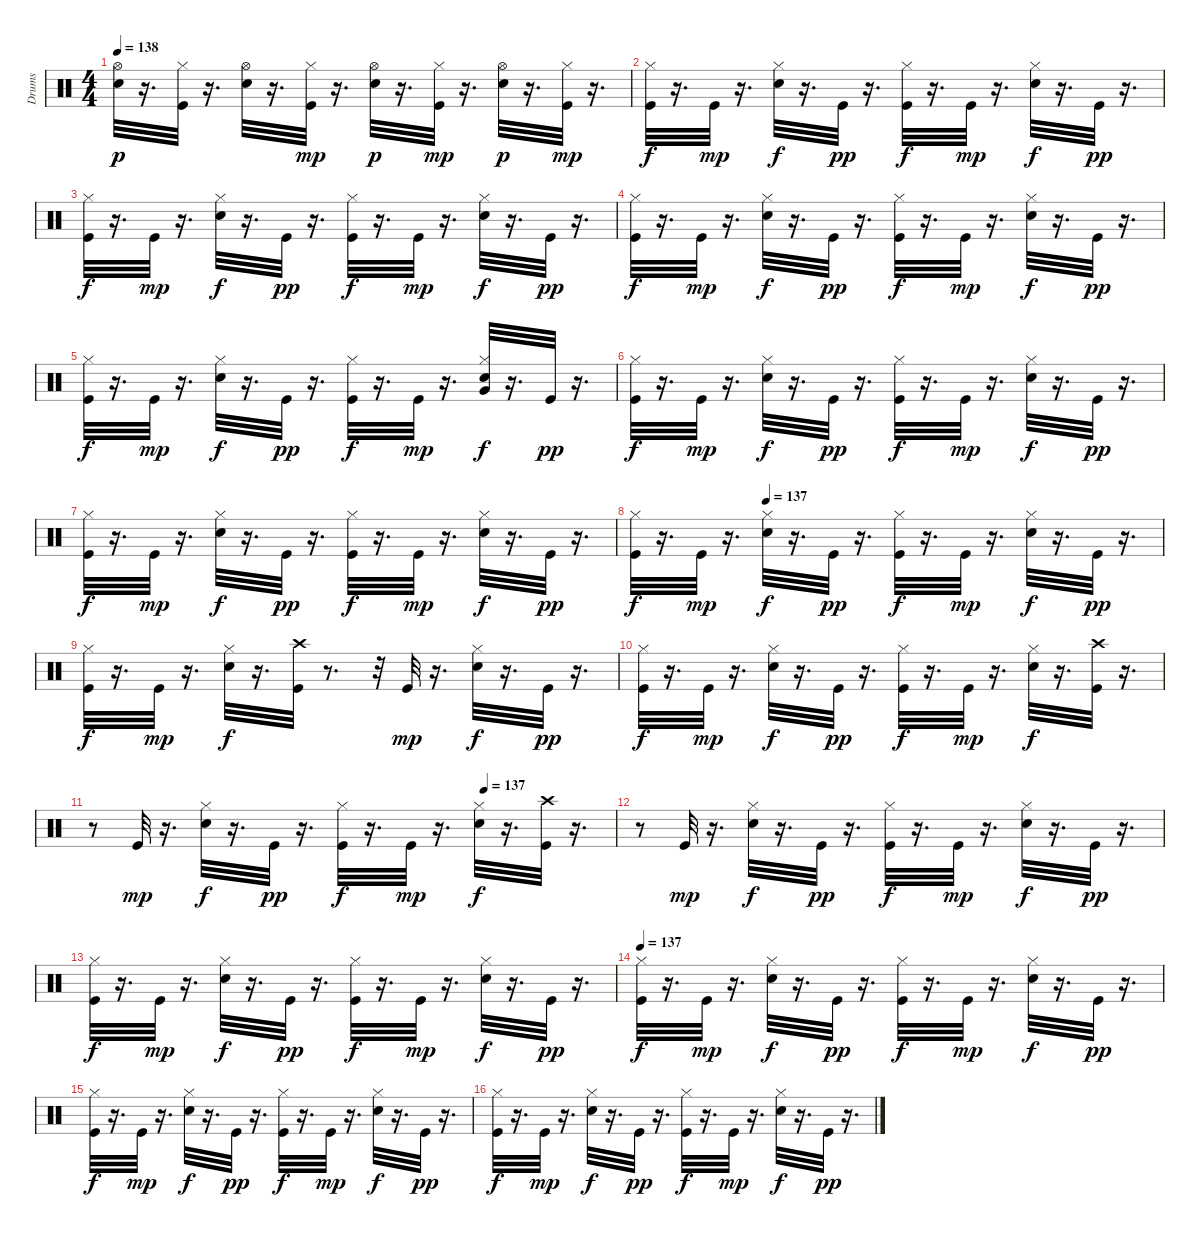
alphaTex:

\track ("Drums" "Drums") {instrument percussion}
\staff {score}
\articulation defaults
\ts (4 4)
\tempo 138
\clef neutral
\ks c
("Hi-Hat (open)" "Snare (hit) 2").32{dy p} r.16{d} ("Hi-Hat (closed)" "Kick (hit)").32 r.16{d} ("Hi-Hat (open)" "Snare (hit) 2").32 r.16{d} ("Hi-Hat (closed)" "Kick (hit)").32{dy mp} r.16{d} ("Hi-Hat (open)" "Snare (hit) 2").32{dy p} r.16{d} ("Hi-Hat (closed)" "Kick (hit)").32{dy mp} r.16{d} ("Hi-Hat (open)" "Snare (hit) 2").32{dy p} r.16{d} ("Hi-Hat (closed)" "Kick (hit)").32{dy mp} r.16{d} |
("Hi-Hat (closed)" "Kick (hit)").32{dy f} r.16{d} "Kick (hit)".32{dy mp} r.16{d} ("Hi-Hat (closed)" "Snare (hit) 2").32{dy f} r.16{d} "Kick (hit)".32{dy pp} r.16{d} ("Hi-Hat (closed)" "Kick (hit)").32{dy f} r.16{d} "Kick (hit)".32{dy mp} r.16{d} ("Hi-Hat (closed)" "Snare (hit) 2").32{dy f} r.16{d} "Kick (hit)".32{dy pp} r.16{d} |
("Hi-Hat (closed)" "Kick (hit)").32{dy f} r.16{d} "Kick (hit)".32{dy mp} r.16{d} ("Hi-Hat (closed)" "Snare (hit) 2").32{dy f} r.16{d} "Kick (hit)".32{dy pp} r.16{d} ("Hi-Hat (closed)" "Kick (hit)").32{dy f} r.16{d} "Kick (hit)".32{dy mp} r.16{d} ("Hi-Hat (closed)" "Snare (hit) 2").32{dy f} r.16{d} "Kick (hit)".32{dy pp} r.16{d} |
("Hi-Hat (closed)" "Kick (hit)").32{dy f} r.16{d} "Kick (hit)".32{dy mp} r.16{d} ("Hi-Hat (closed)" "Snare (hit) 2").32{dy f} r.16{d} "Kick (hit)".32{dy pp} r.16{d} ("Hi-Hat (closed)" "Kick (hit)").32{dy f} r.16{d} "Kick (hit)".32{dy mp} r.16{d} ("Hi-Hat (closed)" "Snare (hit) 2").32{dy f} r.16{d} "Kick (hit)".32{dy pp} r.16{d} |
("Hi-Hat (closed)" "Kick (hit)").32{dy f} r.16{d} "Kick (hit)".32{dy mp} r.16{d} ("Hi-Hat (closed)" "Snare (hit) 2").32{dy f} r.16{d} "Kick (hit)".32{dy pp} r.16{d} ("Hi-Hat (closed)" "Kick (hit)").32{dy f} r.16{d} "Kick (hit)".32{dy mp} r.16{d} ("Very Low Tom (hit)" "Hi-Hat (closed)" "Snare (hit) 2").32{dy f} r.16{d} "Kick (hit)".32{dy pp} r.16{d} |
("Hi-Hat (closed)" "Kick (hit)").32{dy f} r.16{d} "Kick (hit)".32{dy mp} r.16{d} ("Hi-Hat (closed)" "Snare (hit) 2").32{dy f} r.16{d} "Kick (hit)".32{dy pp} r.16{d} ("Hi-Hat (closed)" "Kick (hit)").32{dy f} r.16{d} "Kick (hit)".32{dy mp} r.16{d} ("Hi-Hat (closed)" "Snare (hit) 2").32{dy f} r.16{d} "Kick (hit)".32{dy pp} r.16{d} |
("Hi-Hat (closed)" "Kick (hit)").32{dy f} r.16{d} "Kick (hit)".32{dy mp} r.16{d} ("Hi-Hat (closed)" "Snare (hit) 2").32{dy f} r.16{d} "Kick (hit)".32{dy pp} r.16{d} ("Hi-Hat (closed)" "Kick (hit)").32{dy f} r.16{d} "Kick (hit)".32{dy mp} r.16{d} ("Hi-Hat (closed)" "Snare (hit) 2").32{dy f} r.16{d} "Kick (hit)".32{dy pp} r.16{d} |
\tempo (137 0.25)
("Hi-Hat (closed)" "Kick (hit)").32{dy f} r.16{d} "Kick (hit)".32{dy mp} r.16{d} ("Hi-Hat (closed)" "Snare (hit) 2").32{dy f} r.16{d} "Kick (hit)".32{dy pp} r.16{d} ("Hi-Hat (closed)" "Kick (hit)").32{dy f} r.16{d} "Kick (hit)".32{dy mp} r.16{d} ("Hi-Hat (closed)" "Snare (hit) 2").32{dy f} r.16{d} "Kick (hit)".32{dy pp} r.16{d} |
("Hi-Hat (closed)" "Kick (hit)").32{dy f} r.16{d} "Kick (hit)".32{dy mp} r.16{d} ("Hi-Hat (closed)" "Snare (hit) 2").32{dy f} r.16{d} ("Crash high (hit)" "Kick (hit)").32 r.8{d} r.32 "Kick (hit)".32{dy mp} r.16{d} ("Hi-Hat (closed)" "Snare (hit) 2").32{dy f} r.16{d} "Kick (hit)".32{dy pp} r.16{d} |
("Hi-Hat (closed)" "Kick (hit)").32{dy f} r.16{d} "Kick (hit)".32{dy mp} r.16{d} ("Hi-Hat (closed)" "Snare (hit) 2").32{dy f} r.16{d} "Kick (hit)".32{dy pp} r.16{d} ("Hi-Hat (closed)" "Kick (hit)").32{dy f} r.16{d} "Kick (hit)".32{dy mp} r.16{d} ("Hi-Hat (closed)" "Snare (hit) 2").32{dy f} r.16{d} ("Crash high (hit)" "Kick (hit)").32 r.16{d} |
\tempo (137 0.75)
r.8 "Kick (hit)".32{dy mp} r.16{d} ("Hi-Hat (closed)" "Snare (hit) 2").32{dy f} r.16{d} "Kick (hit)".32{dy pp} r.16{d} ("Hi-Hat (closed)" "Kick (hit)").32{dy f} r.16{d} "Kick (hit)".32{dy mp} r.16{d} ("Hi-Hat (closed)" "Snare (hit) 2").32{dy f} r.16{d} ("Crash high (hit)" "Kick (hit)").32 r.16{d} |
r.8 "Kick (hit)".32{dy mp} r.16{d} ("Hi-Hat (closed)" "Snare (hit) 2").32{dy f} r.16{d} "Kick (hit)".32{dy pp} r.16{d} ("Hi-Hat (closed)" "Kick (hit)").32{dy f} r.16{d} "Kick (hit)".32{dy mp} r.16{d} ("Hi-Hat (closed)" "Snare (hit) 2").32{dy f} r.16{d} "Kick (hit)".32{dy pp} r.16{d} |
("Hi-Hat (closed)" "Kick (hit)").32{dy f} r.16{d} "Kick (hit)".32{dy mp} r.16{d} ("Hi-Hat (closed)" "Snare (hit) 2").32{dy f} r.16{d} "Kick (hit)".32{dy pp} r.16{d} ("Hi-Hat (closed)" "Kick (hit)").32{dy f} r.16{d} "Kick (hit)".32{dy mp} r.16{d} ("Hi-Hat (closed)" "Snare (hit) 2").32{dy f} r.16{d} "Kick (hit)".32{dy pp} r.16{d} |
\tempo 137
("Hi-Hat (closed)" "Kick (hit)").32{dy f} r.16{d} "Kick (hit)".32{dy mp} r.16{d} ("Hi-Hat (closed)" "Snare (hit) 2").32{dy f} r.16{d} "Kick (hit)".32{dy pp} r.16{d} ("Hi-Hat (closed)" "Kick (hit)").32{dy f} r.16{d} "Kick (hit)".32{dy mp} r.16{d} ("Hi-Hat (closed)" "Snare (hit) 2").32{dy f} r.16{d} "Kick (hit)".32{dy pp} r.16{d} |
("Hi-Hat (closed)" "Kick (hit)").32{dy f} r.16{d} "Kick (hit)".32{dy mp} r.16{d} ("Hi-Hat (closed)" "Snare (hit) 2").32{dy f} r.16{d} "Kick (hit)".32{dy pp} r.16{d} ("Hi-Hat (closed)" "Kick (hit)").32{dy f} r.16{d} "Kick (hit)".32{dy mp} r.16{d} ("Hi-Hat (closed)" "Snare (hit) 2").32{dy f} r.16{d} "Kick (hit)".32{dy pp} r.16{d} |
("Hi-Hat (closed)" "Kick (hit)").32{dy f} r.16{d} "Kick (hit)".32{dy mp} r.16{d} ("Hi-Hat (closed)" "Snare (hit) 2").32{dy f} r.16{d} "Kick (hit)".32{dy pp} r.16{d} ("Hi-Hat (closed)" "Kick (hit)").32{dy f} r.16{d} "Kick (hit)".32{dy mp} r.16{d} ("Hi-Hat (closed)" "Snare (hit) 2").32{dy f} r.16{d} "Kick (hit)".32{dy pp} r.16{d}
